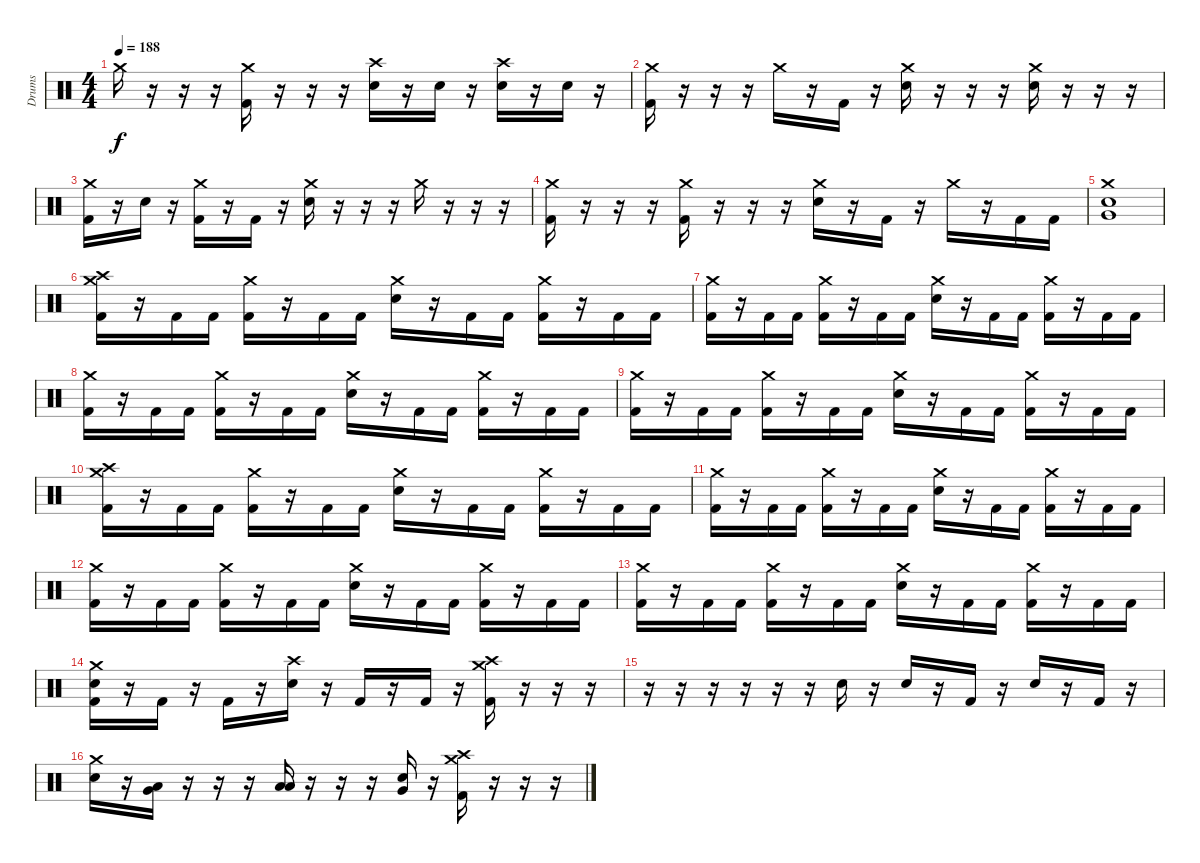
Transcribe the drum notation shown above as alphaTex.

\track ("Drums" "Drums") {instrument percussion}
\staff {score}
\articulation defaults
\ts (4 4)
\tempo 188
\clef neutral
\ks c "Crash medium (hit)".16{dy f}
r.16 r.16 r.16 ("Crash medium (hit)" "Kick (hit) 2").16 r.16 r.16 r.16 ("Crash high (hit)" "Snare (hit) 2").16 r.16 "Snare (hit) 2".16 r.16 ("Crash high (hit)" "Snare (hit) 2").16 r.16 "Snare (hit) 2".16 r.16 |
("Crash medium (hit)" "Kick (hit) 2").16 r.16 r.16 r.16 "Crash medium (hit)".16 r.16 "Kick (hit) 2".16 r.16 ("Crash medium (hit)" "Snare (hit) 2").16 r.16 r.16 r.16 ("Crash medium (hit)" "Snare (hit) 2").16 r.16 r.16 r.16 |
("Crash medium (hit)" "Kick (hit) 2").16 r.16 "Snare (hit) 2".16 r.16 ("Crash medium (hit)" "Kick (hit) 2").16 r.16 "Kick (hit) 2".16 r.16 ("Crash medium (hit)" "Snare (hit) 2").16 r.16 r.16 r.16 "Crash medium (hit)".16 r.16 r.16 r.16 |
("Crash medium (hit)" "Kick (hit) 2").16 r.16 r.16 r.16 ("Crash medium (hit)" "Kick (hit) 2").16 r.16 r.16 r.16 ("Crash medium (hit)" "Snare (hit) 2").16 r.16 "Kick (hit) 2".16 r.16 "Crash medium (hit)".16 r.16 "Kick (hit) 2".16 "Kick (hit) 2".16 |
("Crash medium (hit)" "Snare (hit) 2" "Very Low Tom (hit)").1 |
("Crash medium (hit)" "Crash high (hit)" "Kick (hit) 2").16 r.16 "Kick (hit) 2".16 "Kick (hit) 2".16 ("Crash medium (hit)" "Kick (hit) 2").16 r.16 "Kick (hit) 2".16 "Kick (hit) 2".16 ("Crash medium (hit)" "Snare (hit) 2").16 r.16 "Kick (hit) 2".16 "Kick (hit) 2".16 ("Crash medium (hit)" "Kick (hit) 2").16 r.16 "Kick (hit) 2".16 "Kick (hit) 2".16 |
("Crash medium (hit)" "Kick (hit) 2").16 r.16 "Kick (hit) 2".16 "Kick (hit) 2".16 ("Crash medium (hit)" "Kick (hit) 2").16 r.16 "Kick (hit) 2".16 "Kick (hit) 2".16 ("Crash medium (hit)" "Snare (hit) 2").16 r.16 "Kick (hit) 2".16 "Kick (hit) 2".16 ("Crash medium (hit)" "Kick (hit) 2").16 r.16 "Kick (hit) 2".16 "Kick (hit) 2".16 |
("Crash medium (hit)" "Kick (hit) 2").16 r.16 "Kick (hit) 2".16 "Kick (hit) 2".16 ("Crash medium (hit)" "Kick (hit) 2").16 r.16 "Kick (hit) 2".16 "Kick (hit) 2".16 ("Crash medium (hit)" "Snare (hit) 2").16 r.16 "Kick (hit) 2".16 "Kick (hit) 2".16 ("Crash medium (hit)" "Kick (hit) 2").16 r.16 "Kick (hit) 2".16 "Kick (hit) 2".16 |
("Crash medium (hit)" "Kick (hit) 2").16 r.16 "Kick (hit) 2".16 "Kick (hit) 2".16 ("Crash medium (hit)" "Kick (hit) 2").16 r.16 "Kick (hit) 2".16 "Kick (hit) 2".16 ("Crash medium (hit)" "Snare (hit) 2").16 r.16 "Kick (hit) 2".16 "Kick (hit) 2".16 ("Crash medium (hit)" "Kick (hit) 2").16 r.16 "Kick (hit) 2".16 "Kick (hit) 2".16 |
("Crash medium (hit)" "Crash high (hit)" "Kick (hit) 2").16 r.16 "Kick (hit) 2".16 "Kick (hit) 2".16 ("Crash medium (hit)" "Kick (hit) 2").16 r.16 "Kick (hit) 2".16 "Kick (hit) 2".16 ("Crash medium (hit)" "Snare (hit) 2").16 r.16 "Kick (hit) 2".16 "Kick (hit) 2".16 ("Crash medium (hit)" "Kick (hit) 2").16 r.16 "Kick (hit) 2".16 "Kick (hit) 2".16 |
("Crash medium (hit)" "Kick (hit) 2").16 r.16 "Kick (hit) 2".16 "Kick (hit) 2".16 ("Crash medium (hit)" "Kick (hit) 2").16 r.16 "Kick (hit) 2".16 "Kick (hit) 2".16 ("Crash medium (hit)" "Snare (hit) 2").16 r.16 "Kick (hit) 2".16 "Kick (hit) 2".16 ("Crash medium (hit)" "Kick (hit) 2").16 r.16 "Kick (hit) 2".16 "Kick (hit) 2".16 |
("Crash medium (hit)" "Kick (hit) 2").16 r.16 "Kick (hit) 2".16 "Kick (hit) 2".16 ("Crash medium (hit)" "Kick (hit) 2").16 r.16 "Kick (hit) 2".16 "Kick (hit) 2".16 ("Crash medium (hit)" "Snare (hit) 2").16 r.16 "Kick (hit) 2".16 "Kick (hit) 2".16 ("Crash medium (hit)" "Kick (hit) 2").16 r.16 "Kick (hit) 2".16 "Kick (hit) 2".16 |
("Crash medium (hit)" "Kick (hit) 2").16 r.16 "Kick (hit) 2".16 "Kick (hit) 2".16 ("Crash medium (hit)" "Kick (hit) 2").16 r.16 "Kick (hit) 2".16 "Kick (hit) 2".16 ("Crash medium (hit)" "Snare (hit) 2").16 r.16 "Kick (hit) 2".16 "Kick (hit) 2".16 ("Crash medium (hit)" "Kick (hit) 2").16 r.16 "Kick (hit) 2".16 "Kick (hit) 2".16 |
("Crash medium (hit)" "Snare (hit) 2" "Kick (hit) 2").16 r.16 "Kick (hit) 2".16 r.16 "Kick (hit) 2".16 r.16 ("Crash high (hit)" "Snare (hit) 2").16 r.16 "Kick (hit) 2".16 r.16 "Kick (hit) 2".16 r.16 ("Crash medium (hit)" "Crash high (hit)" "Kick (hit) 2").16 r.16 r.16 r.16 |
r.16 r.16 r.16 r.16 r.16 r.16 "Snare (hit) 2".16 r.16 "Snare (hit) 2".16 r.16 "Kick (hit) 2".16 r.16 "Snare (hit) 2".16 r.16 "Kick (hit) 2".16 r.16 |
("Crash medium (hit)" "Snare (hit) 2").16 r.16 ("Low Tom (hit)" "Very Low Tom (hit)").16 r.16 r.16 r.16 ("Low Tom (hit)" "Low Floor Tom (hit)").16 r.16 r.16 r.16 ("Snare (hit) 2" "Very Low Tom (hit)").16 r.16 ("Crash medium (hit)" "Crash high (hit)" "Kick (hit) 2").16 r.16 r.16 r.16
